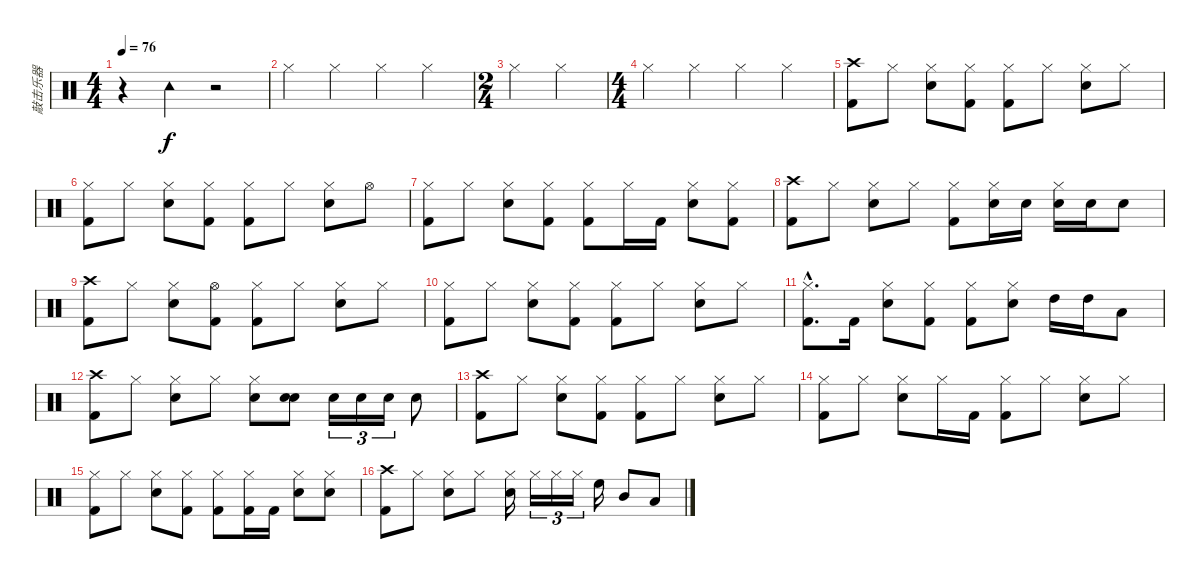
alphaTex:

\track ("敲击乐器" "敲击乐器") {instrument percussion}
\staff {score}
\articulation defaults
\ts (4 4)
\tempo 76
\clef neutral
\ks c
r.4{dy f} "Tambourine (hit)".4 r.2 |
"Hi-Hat (closed)".4 "Hi-Hat (closed)".4 "Hi-Hat (closed)".4 "Hi-Hat (closed)".4 |
\ts (2 4)
"Hi-Hat (closed)".4 "Hi-Hat (closed)".4 |
\ts (4 4)
"Hi-Hat (closed)".4 "Hi-Hat (closed)".4 "Hi-Hat (closed)".4 "Hi-Hat (closed)".4 |
("Crash high (hit)" "Kick (hit) 2").8 "Hi-Hat (closed)".8 ("Hi-Hat (closed)" "Snare (hit) 2").8 ("Hi-Hat (closed)" "Kick (hit) 2").8 ("Hi-Hat (closed)" "Kick (hit) 2").8 "Hi-Hat (closed)".8 ("Hi-Hat (closed)" "Snare (hit) 2").8 "Hi-Hat (closed)".8 |
("Hi-Hat (closed)" "Kick (hit) 2").8 "Hi-Hat (closed)".8 ("Hi-Hat (closed)" "Snare (hit) 2").8 ("Hi-Hat (closed)" "Kick (hit) 2").8 ("Hi-Hat (closed)" "Kick (hit) 2").8 "Hi-Hat (closed)".8 ("Hi-Hat (closed)" "Snare (hit) 2").8 "Hi-Hat (open)".8 |
("Hi-Hat (closed)" "Kick (hit) 2").8 "Hi-Hat (closed)".8 ("Hi-Hat (closed)" "Snare (hit) 2").8 ("Hi-Hat (closed)" "Kick (hit) 2").8 ("Hi-Hat (closed)" "Kick (hit) 2").8 "Hi-Hat (closed)".16 "Kick (hit) 2".16 ("Hi-Hat (closed)" "Snare (hit) 2").8 ("Hi-Hat (closed)" "Kick (hit) 2").8 |
("Crash high (hit)" "Kick (hit) 2").8 "Hi-Hat (closed)".8 ("Hi-Hat (closed)" "Snare (hit) 2").8 "Hi-Hat (closed)".8 ("Hi-Hat (closed)" "Kick (hit) 2").8 ("Hi-Hat (closed)" "Snare (hit) 2").16 "Snare (hit) 2".16 ("Hi-Hat (closed)" "Snare (hit) 2").16 "Snare (hit) 2".16 "Snare (hit) 2".8 |
("Crash high (hit)" "Kick (hit) 2").8 "Hi-Hat (closed)".8 ("Hi-Hat (closed)" "Snare (hit) 2").8 ("Hi-Hat (open)" "Kick (hit) 2").8 ("Hi-Hat (closed)" "Kick (hit) 2").8 "Hi-Hat (closed)".8 ("Hi-Hat (closed)" "Snare (hit) 2").8 "Hi-Hat (closed)".8 |
("Hi-Hat (closed)" "Kick (hit) 2").8 "Hi-Hat (closed)".8 ("Hi-Hat (closed)" "Snare (hit) 2").8 ("Hi-Hat (closed)" "Kick (hit) 2").8 ("Hi-Hat (closed)" "Kick (hit) 2").8 "Hi-Hat (closed)".8 ("Hi-Hat (closed)" "Snare (hit) 2").8 "Hi-Hat (closed)".8 |
("Hi-Hat (closed)"{hac} "Kick (hit) 2"{hac}).8{d} "Kick (hit) 2".16 ("Hi-Hat (closed)" "Snare (hit) 2").8 ("Hi-Hat (closed)" "Kick (hit) 2").8 ("Hi-Hat (closed)" "Kick (hit) 2").8 ("Hi-Hat (closed)" "Snare (hit) 2").8 "High Tom (hit)".16 "High Tom (hit)".16 "Low Tom (hit)".8 |
("Crash high (hit)" "Kick (hit) 2").8 "Hi-Hat (closed)".8 ("Hi-Hat (closed)" "Snare (hit) 2").8 "Hi-Hat (closed)".8 ("Hi-Hat (closed)" "Snare (hit) 2").8 ("Snare (hit)" "Snare (hit) 2").8 "Snare (hit) 2".16{tu (3 2)} "Snare (hit) 2".16{tu (3 2)} "Snare (hit) 2".16{tu (3 2)} "Snare (hit) 2".8 |
("Crash high (hit)" "Kick (hit) 2").8 "Hi-Hat (closed)".8 ("Hi-Hat (closed)" "Snare (hit) 2").8 ("Hi-Hat (closed)" "Kick (hit) 2").8 ("Hi-Hat (closed)" "Kick (hit) 2").8 "Hi-Hat (closed)".8 ("Hi-Hat (closed)" "Snare (hit) 2").8 "Hi-Hat (closed)".8 |
("Hi-Hat (closed)" "Kick (hit) 2").8 "Hi-Hat (closed)".8 ("Hi-Hat (closed)" "Snare (hit) 2").8 "Hi-Hat (closed)".16 "Kick (hit) 2".16 ("Hi-Hat (closed)" "Kick (hit) 2").8 "Hi-Hat (closed)".8 ("Hi-Hat (closed)" "Snare (hit) 2").8 "Hi-Hat (closed)".8 |
("Hi-Hat (closed)" "Kick (hit) 2").8 "Hi-Hat (closed)".8 ("Hi-Hat (closed)" "Snare (hit) 2").8 ("Hi-Hat (closed)" "Kick (hit) 2").8 ("Hi-Hat (closed)" "Kick (hit) 2").8 ("Hi-Hat (closed)" "Kick (hit) 2").16 "Kick (hit) 2".16 ("Hi-Hat (closed)" "Snare (hit) 2").8 ("Hi-Hat (closed)" "Snare (hit) 2").8 |
("Crash high (hit)" "Kick (hit) 2").8 "Hi-Hat (closed)".8 ("Hi-Hat (closed)" "Snare (hit) 2").8 "Hi-Hat (closed)".8 ("Hi-Hat (closed)" "Snare (hit) 2").16 "Hi-Hat (closed)".16{tu (3 2)} "Hi-Hat (closed)".16{tu (3 2)} "Hi-Hat (closed)".16{tu (3 2)} "High Floor Tom (hit)".16 "Mid Tom (hit)".8 "Low Tom (hit)".8
